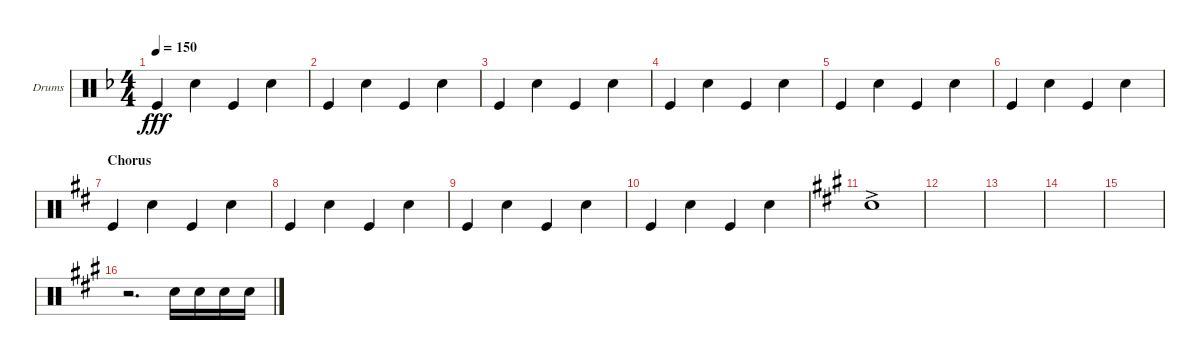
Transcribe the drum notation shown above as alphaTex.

\defaultSystemsLayout 4
\bracketExtendMode groupsimilarinstruments
\firstSystemTrackNameOrientation horizontal
\otherSystemsTrackNameOrientation horizontal
\track ("Drumkit" "Drums") {instrument percussion}
\staff {score}
\articulation defaults
\ts (4 4)
\tempo 150
\clef neutral
\scale
0.333333
\ks f "Kick (hit)".4{dy fff} "Snare (hit) 2".4 "Kick (hit)".4 "Snare (hit) 2".4
|
\scale
0.333333 "Kick (hit)".4 "Snare (hit) 2".4 "Kick (hit)".4 "Snare (hit) 2".4 |
\scale
0.333333 "Kick (hit)".4 "Snare (hit) 2".4 "Kick (hit)".4 "Snare (hit) 2".4 |
\scale
0.333333 "Kick (hit)".4 "Snare (hit) 2".4 "Kick (hit)".4 "Snare (hit) 2".4 |
\scale
0.333333 "Kick (hit)".4 "Snare (hit) 2".4 "Kick (hit)".4 "Snare (hit) 2".4 |
\scale
0.257919 "Kick (hit)".4 "Snare (hit) 2".4 "Kick (hit)".4 "Snare (hit) 2".4 |
\section ("" "Chorus")
\scale
0.484163
\ks d "Kick (hit)".4 "Snare (hit) 2".4 "Kick (hit)".4 "Snare (hit) 2".4
|
\scale
0.257919 "Kick (hit)".4 "Snare (hit) 2".4 "Kick (hit)".4 "Snare (hit) 2".4 |
\scale
0.262673 "Kick (hit)".4 "Snare (hit) 2".4 "Kick (hit)".4 "Snare (hit) 2".4 |
\scale
0.262673 "Kick (hit)".4 "Snare (hit) 2".4 "Kick (hit)".4 "Snare (hit) 2".4 |
\scale
0.474654
\ks a "Snare (hit) 2"{ac}.1
|
\scale
0.333333 |
\scale
0.333333 |
\scale
0.333333 |
\scale
0.333333 |
\scale
0.333333 r.2{d} "Snare (hit) 2".16 "Snare (hit) 2".16 "Snare (hit) 2".16 "Snare (hit) 2".16
